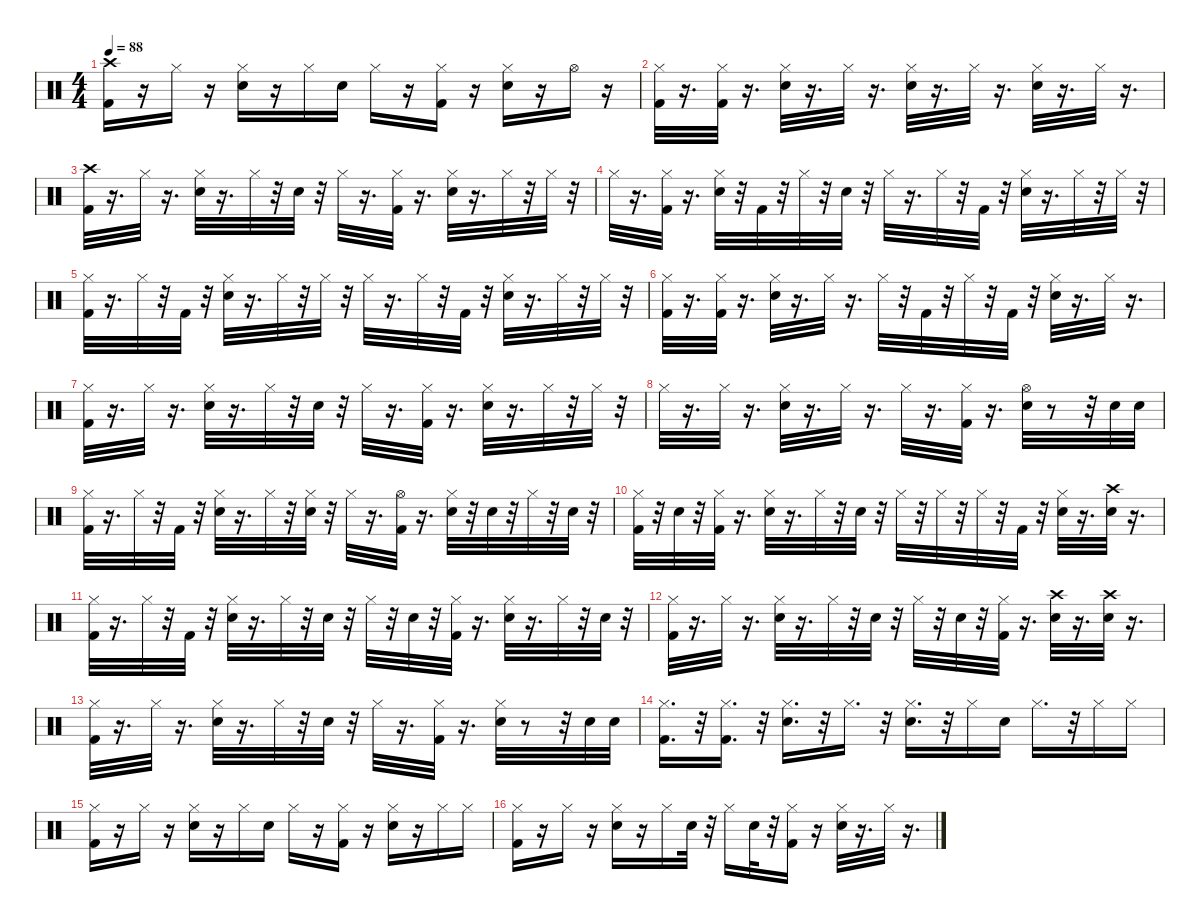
\defaultSystemsLayout 4
\hideDynamics
\bracketExtendMode nobrackets
\singleTrackTrackNamePolicy hidden
\multiTrackTrackNamePolicy hidden
\firstSystemTrackNameMode fullname
\firstSystemTrackNameOrientation horizontal
\otherSystemsTrackNameOrientation horizontal
\track ("Bonzo" "drm.") {instrument percussion}
\staff {score}
\articulation defaults
\ts (4 4)
\tempo 88
\clef neutral
\ks c
("Kick (hit) 2" "Crash high (hit)").16{dy fff beam Down} r.16{beam Down} "Hi-Hat (closed)".16{dy ff beam Down} r.16{beam Down} ("Snare (hit) 2" "Hi-Hat (closed)").16{dy fff beam Down} r.16{beam Down} "Hi-Hat (closed)".16{dy ff beam Down} "Snare (hit) 2".16{dy fff beam Down} "Hi-Hat (closed)".16{dy ff beam Down} r.16{beam Down} ("Kick (hit) 2" "Hi-Hat (closed)").16{dy fff beam Down} r.16{beam Down} ("Snare (hit) 2" "Hi-Hat (closed)").16{beam Down} r.16{beam Down} "Hi-Hat (open)".16{dy ff beam Down} r.16{beam Down} |
("Kick (hit) 2" "Hi-Hat (closed)").32{dy fff beam Down} r.16{d beam Down} ("Kick (hit) 2" "Hi-Hat (closed)").32{beam Down} r.16{d beam Down} ("Snare (hit) 2" "Hi-Hat (closed)").32{beam Down} r.16{d beam Down} "Hi-Hat (closed)".32{dy ff beam Down} r.16{d beam Down} ("Snare (hit) 2" "Hi-Hat (closed)").32{dy fff beam Down} r.16{d beam Down} "Hi-Hat (closed)".32{dy ff beam Down} r.16{d beam Down} ("Snare (hit) 2" "Hi-Hat (closed)").32{dy fff beam Down} r.16{d beam Down} "Hi-Hat (closed)".32{dy ff beam Down} r.16{d beam Down} |
("Kick (hit) 2" "Crash high (hit)").32{dy fff beam Down} r.16{d beam Down} "Hi-Hat (closed)".32{dy ff beam Down} r.16{d beam Down} ("Snare (hit) 2" "Hi-Hat (closed)").32{dy fff beam Down} r.16{d beam Down} "Hi-Hat (closed)".32{dy ff beam Down} r.32{beam Down} "Snare (hit) 2".32{dy fff beam Down} r.32{beam Down} "Hi-Hat (closed)".32{dy ff beam Down} r.16{d beam Down} ("Kick (hit) 2" "Hi-Hat (closed)").32{dy fff beam Down} r.16{d beam Down} ("Snare (hit) 2" "Hi-Hat (closed)").32{beam Down} r.16{d beam Down} "Hi-Hat (closed)".32{dy ff beam Down} r.32{beam Down} "Hi-Hat (closed)".32{beam Down} r.32{beam Down} |
"Hi-Hat (closed)".32{beam Down} r.16{d beam Down} ("Kick (hit) 2" "Hi-Hat (closed)").32{dy fff beam Down} r.16{d beam Down} ("Snare (hit) 2" "Hi-Hat (closed)").32{beam Down} r.32{beam Down} "Kick (hit) 2".32{beam Down} r.32{beam Down} "Hi-Hat (closed)".32{dy ff beam Down} r.32{beam Down} "Snare (hit) 2".32{dy fff beam Down} r.32{beam Down} "Hi-Hat (closed)".32{dy ff beam Down} r.16{d beam Down} "Hi-Hat (closed)".32{beam Down} r.32{beam Down} "Kick (hit) 2".32{dy fff beam Down} r.32{beam Down} ("Snare (hit) 2" "Hi-Hat (closed)").32{beam Down} r.16{d beam Down} "Hi-Hat (closed)".32{dy ff beam Down} r.32{beam Down} "Hi-Hat (closed)".32{beam Down} r.32{beam Down} |
("Kick (hit) 2" "Hi-Hat (closed)").32{dy fff beam Down} r.16{d beam Down} "Hi-Hat (closed)".32{dy ff beam Down} r.32{beam Down} "Kick (hit) 2".32{dy fff beam Down} r.32{beam Down} ("Snare (hit) 2" "Hi-Hat (closed)").32{beam Down} r.16{d beam Down} "Hi-Hat (closed)".32{dy ff beam Down} r.32{beam Down} "Hi-Hat (closed)".32{beam Down} r.32{beam Down} "Hi-Hat (closed)".32{beam Down} r.16{d beam Down} "Hi-Hat (closed)".32{beam Down} r.32{beam Down} "Kick (hit) 2".32{dy fff beam Down} r.32{beam Down} ("Snare (hit) 2" "Hi-Hat (closed)").32{beam Down} r.16{d beam Down} "Hi-Hat (closed)".32{dy ff beam Down} r.32{beam Down} "Hi-Hat (closed)".32{beam Down} r.32{beam Down} |
("Kick (hit) 2" "Hi-Hat (closed)").32{dy fff beam Down} r.16{d beam Down} ("Kick (hit) 2" "Hi-Hat (closed)").32{beam Down} r.16{d beam Down} ("Snare (hit) 2" "Hi-Hat (closed)").32{beam Down} r.16{d beam Down} "Hi-Hat (closed)".32{dy ff beam Down} r.16{d beam Down} "Hi-Hat (closed)".32{beam Down} r.32{beam Down} "Kick (hit) 2".32{dy fff beam Down} r.32{beam Down} "Hi-Hat (closed)".32{dy ff beam Down} r.32{beam Down} "Kick (hit) 2".32{dy fff beam Down} r.32{beam Down} ("Snare (hit) 2" "Hi-Hat (closed)").32{beam Down} r.16{d beam Down} "Hi-Hat (closed)".32{dy ff beam Down} r.16{d beam Down} |
("Kick (hit) 2" "Hi-Hat (closed)").32{dy fff beam Down} r.16{d beam Down} "Hi-Hat (closed)".32{dy ff beam Down} r.16{d beam Down} ("Snare (hit) 2" "Hi-Hat (closed)").32{dy fff beam Down} r.16{d beam Down} "Hi-Hat (closed)".32{dy ff beam Down} r.32{beam Down} "Snare (hit) 2".32{dy fff beam Down} r.32{beam Down} "Hi-Hat (closed)".32{dy ff beam Down} r.16{d beam Down} ("Kick (hit) 2" "Hi-Hat (closed)").32{dy fff beam Down} r.16{d beam Down} ("Snare (hit) 2" "Hi-Hat (closed)").32{beam Down} r.16{d beam Down} "Hi-Hat (closed)".32{dy ff beam Down} r.32{beam Down} "Hi-Hat (closed)".32{beam Down} r.32{beam Down} |
"Hi-Hat (closed)".32{beam Down} r.16{d beam Down} "Hi-Hat (closed)".32{beam Down} r.16{d beam Down} ("Snare (hit) 2" "Hi-Hat (closed)").32{dy fff beam Down} r.16{d beam Down} "Hi-Hat (closed)".32{dy ff beam Down} r.16{d beam Down} "Hi-Hat (closed)".32{beam Down} r.16{d beam Down} ("Kick (hit) 2" "Hi-Hat (closed)").32{dy fff beam Down} r.16{d beam Down} ("Snare (hit) 2" "Hi-Hat (open)").32{beam Down} r.8{beam Down} r.32{beam Down} "Snare (hit) 2".32{beam Down} "Snare (hit) 2".32{beam Down} |
("Kick (hit) 2" "Hi-Hat (closed)").32{beam Down} r.16{d beam Down} "Hi-Hat (closed)".32{dy ff beam Down} r.32{beam Down} "Kick (hit) 2".32{dy fff beam Down} r.32{beam Down} ("Snare (hit) 2" "Hi-Hat (closed)").32{beam Down} r.16{d beam Down} "Hi-Hat (closed)".32{dy ff beam Down} r.32{beam Down} ("Snare (hit) 2" "Hi-Hat (closed)").32{dy fff beam Down} r.32{beam Down} "Hi-Hat (closed)".32{dy ff beam Down} r.16{d beam Down} ("Kick (hit) 2" "Hi-Hat (open)").32{dy fff beam Down} r.16{d beam Down} ("Snare (hit) 2" "Hi-Hat (closed)").32{beam Down} r.32{beam Down} "Snare (hit) 2".32{beam Down} r.32{beam Down} "Hi-Hat (closed)".32{dy ff beam Down} r.32{beam Down} "Snare (hit) 2".32{dy fff beam Down} r.32{beam Down} |
("Kick (hit) 2" "Hi-Hat (closed)").32{beam Down} r.32{beam Down} "Snare (hit) 2".32{beam Down} r.32{beam Down} ("Kick (hit) 2" "Hi-Hat (closed)").32{beam Down} r.16{d beam Down} ("Snare (hit) 2" "Hi-Hat (closed)").32{beam Down} r.16{d beam Down} "Hi-Hat (closed)".32{dy ff beam Down} r.32{beam Down} "Snare (hit) 2".32{dy fff beam Down} r.32{beam Down} "Hi-Hat (closed)".32{dy ff beam Down} r.32{beam Down} "Hi-Hat (closed)".32{beam Down} r.32{beam Down} "Hi-Hat (closed)".32{beam Down} r.32{beam Down} "Kick (hit) 2".32{dy fff beam Down} r.32{beam Down} ("Snare (hit) 2" "Hi-Hat (closed)").32{beam Down} r.16{d beam Down} ("Snare (hit) 2" "Crash high (hit)").32{beam Down} r.16{d beam Down} |
("Kick (hit) 2" "Hi-Hat (closed)").32{beam Down} r.16{d beam Down} "Hi-Hat (closed)".32{dy ff beam Down} r.32{beam Down} "Kick (hit) 2".32{dy fff beam Down} r.32{beam Down} ("Snare (hit) 2" "Hi-Hat (closed)").32{beam Down} r.16{d beam Down} "Hi-Hat (closed)".32{dy ff beam Down} r.32{beam Down} "Snare (hit) 2".32{dy fff beam Down} r.32{beam Down} "Hi-Hat (closed)".32{dy ff beam Down} r.32{beam Down} "Snare (hit) 2".32{dy fff beam Down} r.32{beam Down} ("Kick (hit) 2" "Hi-Hat (closed)").32{beam Down} r.16{d beam Down} ("Snare (hit) 2" "Hi-Hat (closed)").32{beam Down} r.16{d beam Down} "Hi-Hat (closed)".32{dy ff beam Down} r.32{beam Down} "Snare (hit) 2".32{dy fff beam Down} r.32{beam Down} |
("Kick (hit) 2" "Hi-Hat (closed)").32{beam Down} r.16{d beam Down} "Hi-Hat (closed)".32{dy ff beam Down} r.16{d beam Down} ("Snare (hit) 2" "Hi-Hat (closed)").32{dy fff beam Down} r.16{d beam Down} "Hi-Hat (closed)".32{dy ff beam Down} r.32{beam Down} "Snare (hit) 2".32{dy fff beam Down} r.32{beam Down} "Hi-Hat (closed)".32{dy ff beam Down} r.32{beam Down} "Snare (hit) 2".32{dy fff beam Down} r.32{beam Down} ("Kick (hit) 2" "Hi-Hat (closed)").32{beam Down} r.16{d beam Down} ("Snare (hit) 2" "Crash high (hit)").32{beam Down} r.16{d beam Down} ("Snare (hit) 2" "Crash high (hit)").32{beam Down} r.16{d beam Down} |
("Kick (hit) 2" "Hi-Hat (closed)").32{beam Down} r.16{d beam Down} "Hi-Hat (closed)".32{dy ff beam Down} r.16{d beam Down} ("Snare (hit) 2" "Hi-Hat (closed)").32{dy fff beam Down} r.16{d beam Down} "Hi-Hat (closed)".32{dy ff beam Down} r.32{beam Down} "Snare (hit) 2".32{dy fff beam Down} r.32{beam Down} "Hi-Hat (closed)".32{dy ff beam Down} r.16{d beam Down} ("Kick (hit) 2" "Hi-Hat (closed)").32{dy fff beam Down} r.16{d beam Down} ("Snare (hit) 2" "Hi-Hat (closed)").32{beam Down} r.8{beam Down} r.32{beam Down} "Snare (hit) 2".32{beam Down} "Snare (hit) 2".32{beam Down} |
("Kick (hit) 2" "Hi-Hat (closed)").16{d beam Down} r.32{beam Down} ("Kick (hit) 2" "Hi-Hat (closed)").16{d beam Down} r.32{beam Down} ("Snare (hit) 2" "Hi-Hat (closed)").16{d beam Down} r.32{beam Down} "Hi-Hat (closed)".16{d dy ff beam Down} r.32{beam Down} ("Snare (hit) 2" "Hi-Hat (closed)").16{d dy fff beam Down} r.32{beam Down} "Hi-Hat (closed)".16{dy ff beam Down} "Snare (hit) 2".16{dy fff beam Down} "Hi-Hat (closed)".16{d dy ff beam Down} r.32{beam Down} "Hi-Hat (closed)".16{beam Down} "Hi-Hat (closed)".16{beam Down} |
("Kick (hit) 2" "Hi-Hat (closed)").16{dy fff beam Down} r.16{beam Down} "Hi-Hat (closed)".16{dy ff beam Down} r.16{beam Down} ("Snare (hit) 2" "Hi-Hat (closed)").16{dy fff beam Down} r.16{beam Down} "Hi-Hat (closed)".16{dy ff beam Down} "Snare (hit) 2".16{dy fff beam Down} "Hi-Hat (closed)".16{dy ff beam Down} r.16{beam Down} ("Kick (hit) 2" "Hi-Hat (closed)").16{dy fff beam Down} r.16{beam Down} ("Snare (hit) 2" "Hi-Hat (closed)").16{beam Down} r.16{beam Down} "Hi-Hat (closed)".16{dy ff beam Down} "Hi-Hat (closed)".16{beam Down} |
("Kick (hit) 2" "Hi-Hat (closed)").16{dy fff beam Down} r.16{beam Down} "Hi-Hat (closed)".16{dy ff beam Down} r.16{beam Down} ("Snare (hit) 2" "Hi-Hat (closed)").16{dy fff beam Down} r.16{beam Down} "Hi-Hat (closed)".16{dy ff beam Down} "Snare (hit) 2".32{dy fff beam Down} r.32{beam Down} "Hi-Hat (closed)".16{dy ff beam Down} "Snare (hit) 2".32{dy fff beam Down} r.32{beam Down} ("Kick (hit) 2" "Hi-Hat (closed)").16{beam Down} r.16{beam Down} ("Snare (hit) 2" "Hi-Hat (closed)").32{beam Down} r.16{d beam Down} "Hi-Hat (closed)".32{dy ff beam Down} r.16{d beam Down}
